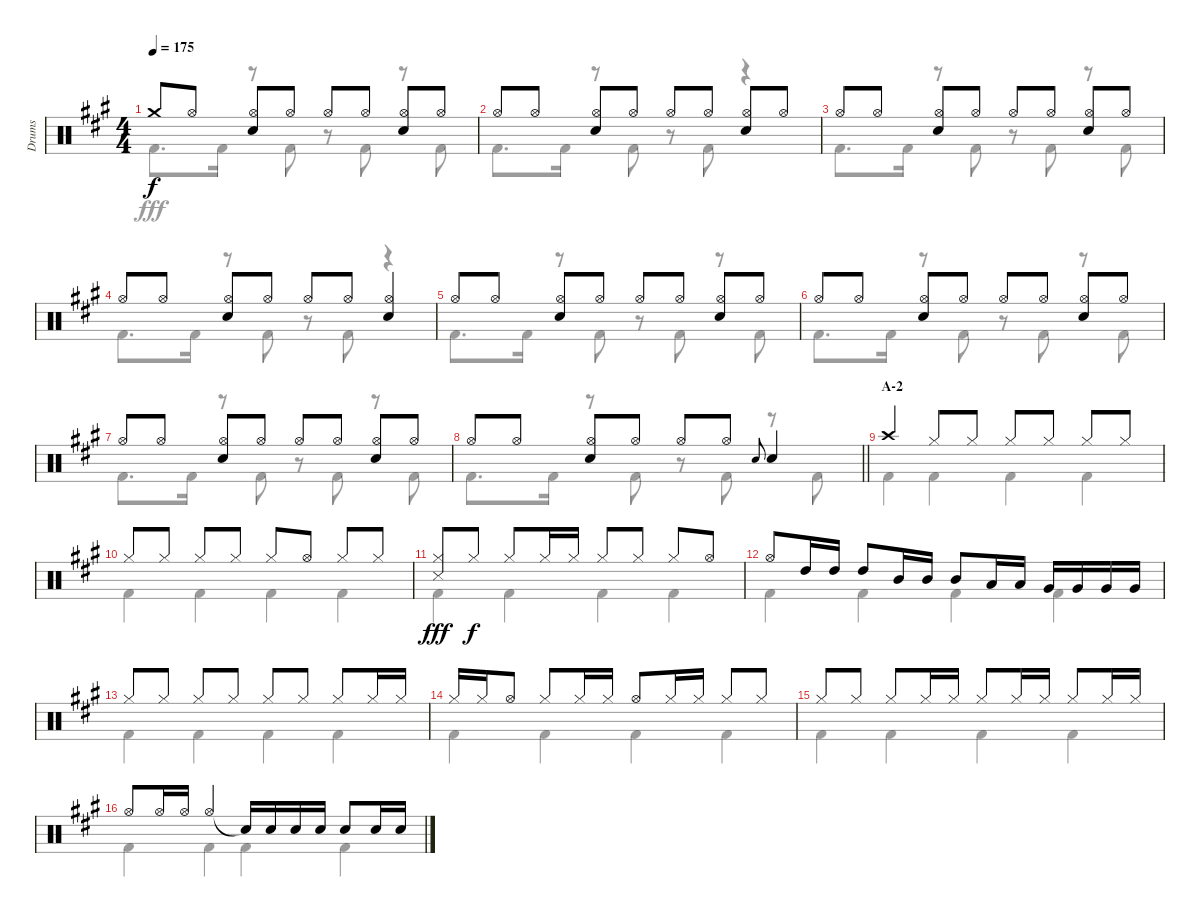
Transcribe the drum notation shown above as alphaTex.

\track ("Drums" "Drums") {instrument percussion}
\staff {score}
\articulation defaults
\voice
\ts (4 4)
\tempo 175
\clef neutral
\ks a "Crash medium (hit)".8{dy f} "Hi-Hat (open)".8
("Hi-Hat (open)" "Snare (hit) 2").8 "Hi-Hat (open)".8 "Hi-Hat (open)".8 "Hi-Hat (open)".8 ("Hi-Hat (open)" "Snare (hit) 2").8 "Hi-Hat (open)".8 |
"Hi-Hat (open)".8 "Hi-Hat (open)".8 ("Hi-Hat (open)" "Snare (hit) 2").8 "Hi-Hat (open)".8 "Hi-Hat (open)".8 "Hi-Hat (open)".8 ("Hi-Hat (open)" "Snare (hit) 2").8 "Hi-Hat (open)".8 |
"Hi-Hat (open)".8 "Hi-Hat (open)".8 ("Hi-Hat (open)" "Snare (hit) 2").8 "Hi-Hat (open)".8 "Hi-Hat (open)".8 "Hi-Hat (open)".8 ("Hi-Hat (open)" "Snare (hit) 2").8 "Hi-Hat (open)".8 |
"Hi-Hat (open)".8 "Hi-Hat (open)".8 ("Hi-Hat (open)" "Snare (hit) 2").8 "Hi-Hat (open)".8 "Hi-Hat (open)".8 "Hi-Hat (open)".8 ("Hi-Hat (open)" "Snare (hit) 2").4 |
"Hi-Hat (open)".8 "Hi-Hat (open)".8 ("Hi-Hat (open)" "Snare (hit) 2").8 "Hi-Hat (open)".8 "Hi-Hat (open)".8 "Hi-Hat (open)".8 ("Hi-Hat (open)" "Snare (hit) 2").8 "Hi-Hat (open)".8 |
"Hi-Hat (open)".8 "Hi-Hat (open)".8 ("Hi-Hat (open)" "Snare (hit) 2").8 "Hi-Hat (open)".8 "Hi-Hat (open)".8 "Hi-Hat (open)".8 ("Hi-Hat (open)" "Snare (hit) 2").8 "Hi-Hat (open)".8 |
"Hi-Hat (open)".8 "Hi-Hat (open)".8 ("Hi-Hat (open)" "Snare (hit) 2").8 "Hi-Hat (open)".8 "Hi-Hat (open)".8 "Hi-Hat (open)".8 ("Hi-Hat (open)" "Snare (hit) 2").8 "Hi-Hat (open)".8 |
\barLineRight lightlight "Hi-Hat (open)".8 "Hi-Hat (open)".8
("Hi-Hat (open)" "Snare (hit) 2").8 "Hi-Hat (open)".8 "Hi-Hat (open)".8 "Hi-Hat (open)".8 "Snare (hit) 2".8{gr onbeat} "Snare (hit) 2".4 |
\section ("" "A-2")
"Crash high (hit)".4 "Hi-Hat (closed)".8 "Hi-Hat (closed)".8 "Hi-Hat (closed)".8 "Hi-Hat (closed)".8 "Hi-Hat (closed)".8 "Hi-Hat (closed)".8 |
"Hi-Hat (closed)".8 "Hi-Hat (closed)".8 "Hi-Hat (closed)".8 "Hi-Hat (closed)".8 "Hi-Hat (closed)".8 "Hi-Hat (open)".8 "Hi-Hat (closed)".8 "Hi-Hat (closed)".8 |
("Hi-Hat (closed)" "Snare (side stick) 3").8{dy fff} "Hi-Hat (closed)".8{dy f} "Hi-Hat (closed)".8 "Hi-Hat (closed)".16 "Hi-Hat (closed)".16 "Hi-Hat (closed)".8 "Hi-Hat (closed)".8 "Hi-Hat (closed)".8 "Hi-Hat (open)".8 |
"Hi-Hat (open)".8 "High Tom (hit)".16 "High Tom (hit)".16 "High Tom (hit)".8 "Mid Tom (hit)".16 "Mid Tom (hit)".16 "Mid Tom (hit)".8 "Low Tom (hit)".16 "Low Tom (hit)".16 "Very Low Tom (hit)".16 "Very Low Tom (hit)".16 "Very Low Tom (hit)".16 "Very Low Tom (hit)".16 |
"Hi-Hat (closed)".8 "Hi-Hat (closed)".8 "Hi-Hat (closed)".8 "Hi-Hat (closed)".8 "Hi-Hat (closed)".8 "Hi-Hat (closed)".8 "Hi-Hat (closed)".8 "Hi-Hat (closed)".16 "Hi-Hat (closed)".16 |
"Hi-Hat (closed)".16 "Hi-Hat (closed)".16 "Hi-Hat (open)".8 "Hi-Hat (closed)".8 "Hi-Hat (closed)".16 "Hi-Hat (closed)".16 "Hi-Hat (open)".8 "Hi-Hat (closed)".16 "Hi-Hat (closed)".16 "Hi-Hat (closed)".8 "Hi-Hat (closed)".8 |
"Hi-Hat (closed)".8 "Hi-Hat (closed)".8 "Hi-Hat (closed)".8 "Hi-Hat (closed)".16 "Hi-Hat (closed)".16 "Hi-Hat (closed)".8 "Hi-Hat (closed)".16 "Hi-Hat (closed)".16 "Hi-Hat (closed)".8 "Hi-Hat (closed)".16 "Hi-Hat (closed)".16 |
"Hi-Hat (open)".8 "Hi-Hat (open)".16 "Hi-Hat (open)".16 "Hi-Hat (open)".4 "Snare (hit)"{t}.16 "Snare (hit) 2".16 "Snare (hit) 2".16 "Snare (hit) 2".16 "Snare (hit) 2".8 "Snare (hit) 2".16 "Snare (hit) 2".16
\voice
\clef neutral
\ottava regular
\simile none
\ks a "Kick (hit) 2".8{d dy fff} "Kick (hit) 2".16
r.8 "Kick (hit) 2".8 r.8 "Kick (hit) 2".8 r.8 "Kick (hit) 2".8 |
"Kick (hit) 2".8{d} "Kick (hit) 2".16 r.8 "Kick (hit) 2".8 r.8 "Kick (hit) 2".8 r.4 |
"Kick (hit) 2".8{d} "Kick (hit) 2".16 r.8 "Kick (hit) 2".8 r.8 "Kick (hit) 2".8 r.8 "Kick (hit) 2".8 |
"Kick (hit) 2".8{d} "Kick (hit) 2".16 r.8 "Kick (hit) 2".8 r.8 "Kick (hit) 2".8 r.4 |
"Kick (hit) 2".8{d} "Kick (hit) 2".16 r.8 "Kick (hit) 2".8 r.8 "Kick (hit) 2".8 r.8 "Kick (hit) 2".8 |
"Kick (hit) 2".8{d} "Kick (hit) 2".16 r.8 "Kick (hit) 2".8 r.8 "Kick (hit) 2".8 r.8 "Kick (hit) 2".8 |
"Kick (hit) 2".8{d} "Kick (hit) 2".16 r.8 "Kick (hit) 2".8 r.8 "Kick (hit) 2".8 r.8 "Kick (hit) 2".8 |
\barLineRight lightlight "Kick (hit) 2".8{d} "Kick (hit) 2".16
r.8 "Kick (hit) 2".8 r.8 "Kick (hit) 2".8 r.8 "Kick (hit) 2".8 |
"Kick (hit) 2".4 "Kick (hit) 2".4 "Kick (hit) 2".4 "Kick (hit) 2".4 |
"Kick (hit) 2".4 "Kick (hit) 2".4 "Kick (hit) 2".4 "Kick (hit) 2".4 |
"Kick (hit) 2".4 "Kick (hit) 2".4 "Kick (hit) 2".4 "Kick (hit) 2".4 |
"Kick (hit) 2".4 "Kick (hit) 2".4 "Kick (hit) 2".4 "Kick (hit) 2".4 |
"Kick (hit) 2".4 "Kick (hit) 2".4 "Kick (hit) 2".4 "Kick (hit) 2".4 |
"Kick (hit) 2".4 "Kick (hit) 2".4 "Kick (hit) 2".4 "Kick (hit) 2".4 |
"Kick (hit) 2".4 "Kick (hit) 2".4 "Kick (hit) 2".4 "Kick (hit) 2".4 |
"Kick (hit) 2".4 "Kick (hit) 2".4 "Kick (hit) 2".4 "Kick (hit) 2".4
